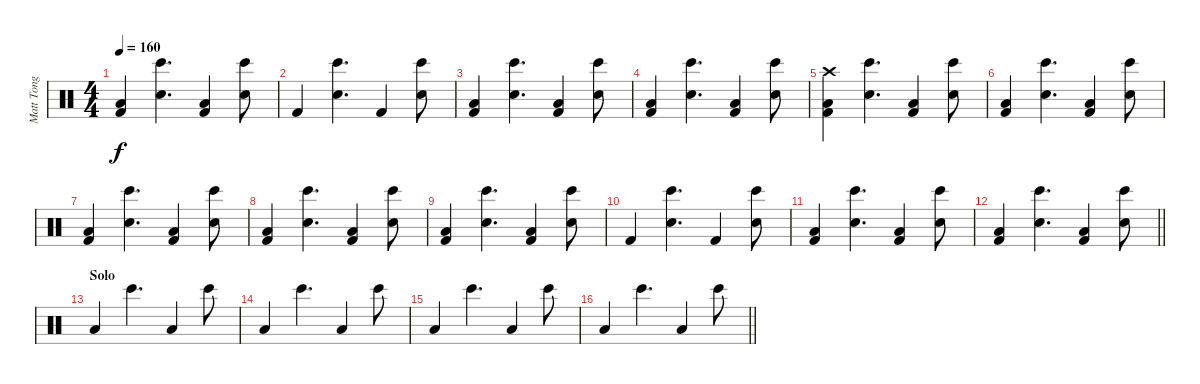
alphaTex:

\track ("Matt Tong - Drums" "Matt Tong ") {instrument percussion}
\staff {score}
\articulation defaults
\ts (4 4)
\tempo 160
\clef neutral
\ks c
("Kick (hit) 2" "Low Floor Tom (hit)").4{dy f} ("Bongo High (hit)" "Snare (hit) 2").4{d} ("Kick (hit) 2" "Low Floor Tom (hit)").4 ("Bongo High (hit)" "Snare (hit) 2").8 |
"Kick (hit) 2".4 ("Bongo High (hit)" "Snare (hit) 2").4{d} "Kick (hit) 2".4 ("Bongo High (hit)" "Snare (hit) 2").8 |
("Kick (hit) 2" "Low Floor Tom (hit)").4 ("Bongo High (hit)" "Snare (hit) 2").4{d} ("Kick (hit) 2" "Low Floor Tom (hit)").4 ("Bongo High (hit)" "Snare (hit) 2").8 |
("Kick (hit) 2" "Low Floor Tom (hit)").4 ("Bongo High (hit)" "Snare (hit) 2").4{d} ("Kick (hit) 2" "Low Floor Tom (hit)").4 ("Bongo High (hit)" "Snare (hit) 2").8 |
("Kick (hit) 2" "Low Floor Tom (hit)" "Crash high (hit)").4 ("Bongo High (hit)" "Snare (hit) 2").4{d} ("Kick (hit) 2" "Low Floor Tom (hit)").4 ("Bongo High (hit)" "Snare (hit) 2").8 |
("Kick (hit) 2" "Low Floor Tom (hit)").4 ("Bongo High (hit)" "Snare (hit) 2").4{d} ("Kick (hit) 2" "Low Floor Tom (hit)").4 ("Bongo High (hit)" "Snare (hit) 2").8 |
("Kick (hit) 2" "Low Floor Tom (hit)").4 ("Bongo High (hit)" "Snare (hit) 2").4{d} ("Kick (hit) 2" "Low Floor Tom (hit)").4 ("Bongo High (hit)" "Snare (hit) 2").8 |
("Kick (hit) 2" "Low Floor Tom (hit)").4 ("Bongo High (hit)" "Snare (hit) 2").4{d} ("Kick (hit) 2" "Low Floor Tom (hit)").4 ("Bongo High (hit)" "Snare (hit) 2").8 |
("Kick (hit) 2" "Low Floor Tom (hit)").4 ("Bongo High (hit)" "Snare (hit) 2").4{d} ("Kick (hit) 2" "Low Floor Tom (hit)").4 ("Bongo High (hit)" "Snare (hit) 2").8 |
"Kick (hit) 2".4 ("Bongo High (hit)" "Snare (hit) 2").4{d} "Kick (hit) 2".4 ("Bongo High (hit)" "Snare (hit) 2").8 |
("Kick (hit) 2" "Low Floor Tom (hit)").4 ("Bongo High (hit)" "Snare (hit) 2").4{d} ("Kick (hit) 2" "Low Floor Tom (hit)").4 ("Bongo High (hit)" "Snare (hit) 2").8 |
\barLineRight lightlight
("Kick (hit) 2" "Low Floor Tom (hit)").4 ("Bongo High (hit)" "Snare (hit) 2").4{d} ("Kick (hit) 2" "Low Floor Tom (hit)").4 ("Bongo High (hit)" "Snare (hit) 2").8 |
\section ("" "Solo")
"Low Floor Tom (hit)".4 "Bongo High (hit)".4{d} "Low Floor Tom (hit)".4 "Bongo High (hit)".8 |
"Low Floor Tom (hit)".4 "Bongo High (hit)".4{d} "Low Floor Tom (hit)".4 "Bongo High (hit)".8 |
"Low Floor Tom (hit)".4 "Bongo High (hit)".4{d} "Low Floor Tom (hit)".4 "Bongo High (hit)".8 |
\barLineRight lightlight "Low Floor Tom (hit)".4 "Bongo High (hit)".4{d} "Low Floor Tom (hit)".4 "Bongo High (hit)".8
